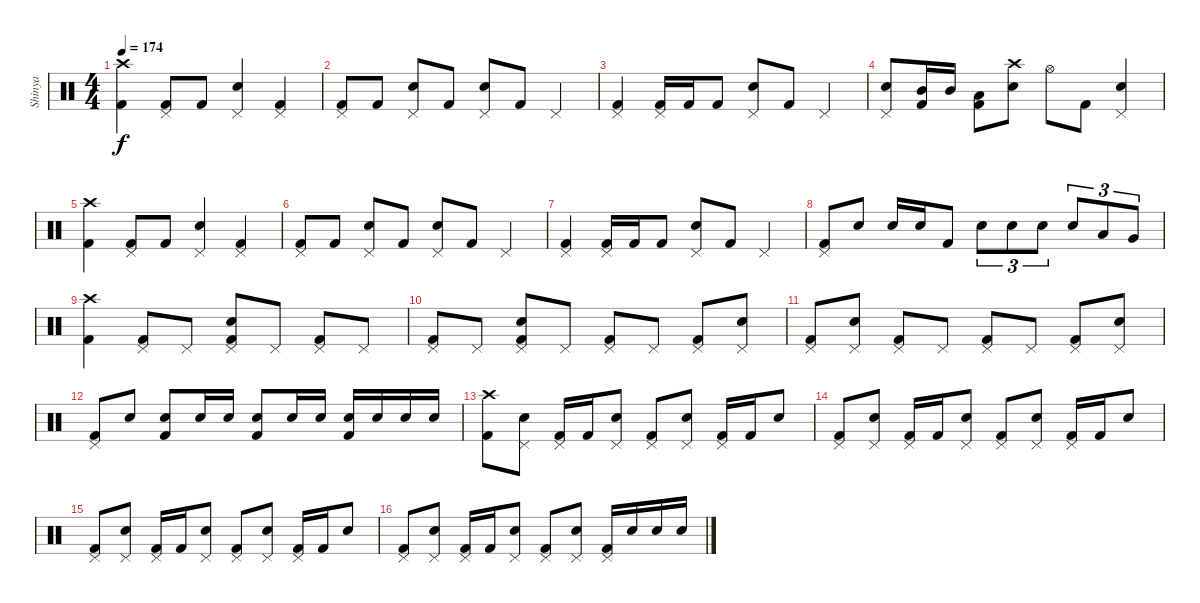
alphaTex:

\track ("Shinya" "Shinya") {instrument percussion}
\staff {score}
\articulation defaults
\ts (4 4)
\tempo 174
\clef neutral
\ks c
("Crash high (hit)" "Kick (hit) 2").4{dy f} ("Pedal Hi-Hat (hit)" "Kick (hit) 2").8 "Kick (hit) 2".8 ("Pedal Hi-Hat (hit)" "Electric Snare (hit)").4 ("Pedal Hi-Hat (hit)" "Kick (hit) 2").4 |
("Pedal Hi-Hat (hit)" "Kick (hit) 2").8 "Kick (hit) 2".8 ("Pedal Hi-Hat (hit)" "Electric Snare (hit)").8 "Kick (hit) 2".8 ("Pedal Hi-Hat (hit)" "Electric Snare (hit)").8 "Kick (hit) 2".8 "Pedal Hi-Hat (hit)".4 |
("Pedal Hi-Hat (hit)" "Kick (hit) 2").4 ("Pedal Hi-Hat (hit)" "Kick (hit) 2").16 "Kick (hit) 2".16 "Kick (hit) 2".8 ("Pedal Hi-Hat (hit)" "Electric Snare (hit)").8 "Kick (hit) 2".8 "Pedal Hi-Hat (hit)".4 |
("Pedal Hi-Hat (hit)" "Electric Snare (hit)").8 ("Mid Tom (hit)" "Kick (hit) 2").16 "Mid Tom (hit)".16 ("Low Tom (hit)" "Kick (hit) 2").8 ("Crash high (hit)" "Electric Snare (hit)").8 "Hi-Hat (open)".8 "Kick (hit) 2".8 ("Pedal Hi-Hat (hit)" "Electric Snare (hit)").4 |
("Crash high (hit)" "Kick (hit) 2").4 ("Pedal Hi-Hat (hit)" "Kick (hit) 2").8 "Kick (hit) 2".8 ("Pedal Hi-Hat (hit)" "Electric Snare (hit)").4 ("Pedal Hi-Hat (hit)" "Kick (hit) 2").4 |
("Pedal Hi-Hat (hit)" "Kick (hit) 2").8 "Kick (hit) 2".8 ("Pedal Hi-Hat (hit)" "Electric Snare (hit)").8 "Kick (hit) 2".8 ("Pedal Hi-Hat (hit)" "Electric Snare (hit)").8 "Kick (hit) 2".8 "Pedal Hi-Hat (hit)".4 |
("Pedal Hi-Hat (hit)" "Kick (hit) 2").4 ("Pedal Hi-Hat (hit)" "Kick (hit) 2").16 "Kick (hit) 2".16 "Kick (hit) 2".8 ("Pedal Hi-Hat (hit)" "Electric Snare (hit)").8 "Kick (hit) 2".8 "Pedal Hi-Hat (hit)".4 |
("Pedal Hi-Hat (hit)" "Kick (hit) 2").8 "Electric Snare (hit)".8 "Electric Snare (hit)".16 "Electric Snare (hit)".16 "Kick (hit) 2".8 "Electric Snare (hit)".8{tu (3 2)} "Electric Snare (hit)".8{tu (3 2)} "Electric Snare (hit)".8{tu (3 2)} "Electric Snare (hit)".8{tu (3 2)} "Low Tom (hit)".8{tu (3 2)} "Very Low Tom (hit)".8{tu (3 2)} |
("Crash high (hit)" "Kick (hit) 2").4 ("Pedal Hi-Hat (hit)" "Kick (hit) 2").8 "Pedal Hi-Hat (hit)".8 ("Pedal Hi-Hat (hit)" "Electric Snare (hit)" "Kick (hit) 2").8 "Pedal Hi-Hat (hit)".8 ("Pedal Hi-Hat (hit)" "Kick (hit) 2").8 "Pedal Hi-Hat (hit)".8 |
("Pedal Hi-Hat (hit)" "Kick (hit) 2").8 "Pedal Hi-Hat (hit)".8 ("Pedal Hi-Hat (hit)" "Electric Snare (hit)" "Kick (hit) 2").8 "Pedal Hi-Hat (hit)".8 ("Pedal Hi-Hat (hit)" "Kick (hit) 2").8 "Pedal Hi-Hat (hit)".8 ("Pedal Hi-Hat (hit)" "Kick (hit) 2").8 ("Pedal Hi-Hat (hit)" "Electric Snare (hit)").8 |
("Pedal Hi-Hat (hit)" "Kick (hit) 2").8 ("Pedal Hi-Hat (hit)" "Electric Snare (hit)").8 ("Pedal Hi-Hat (hit)" "Kick (hit) 2").8 "Pedal Hi-Hat (hit)".8 ("Pedal Hi-Hat (hit)" "Kick (hit) 2").8 "Pedal Hi-Hat (hit)".8 ("Pedal Hi-Hat (hit)" "Kick (hit) 2").8 ("Pedal Hi-Hat (hit)" "Electric Snare (hit)").8 |
("Pedal Hi-Hat (hit)" "Kick (hit) 2").8 "Electric Snare (hit)".8 ("Electric Snare (hit)" "Kick (hit) 2").8 "Electric Snare (hit)".16 "Electric Snare (hit)".16 ("Electric Snare (hit)" "Kick (hit) 2").8 "Electric Snare (hit)".16 "Electric Snare (hit)".16 ("Electric Snare (hit)" "Kick (hit) 2").16 "Electric Snare (hit)".16 "Electric Snare (hit)".16 "Electric Snare (hit)".16 |
("Crash high (hit)" "Kick (hit) 2").8 ("Pedal Hi-Hat (hit)" "Electric Snare (hit)").8 ("Pedal Hi-Hat (hit)" "Kick (hit) 2").16 "Kick (hit) 2".16 ("Pedal Hi-Hat (hit)" "Electric Snare (hit)").8 ("Pedal Hi-Hat (hit)" "Kick (hit) 2").8 ("Pedal Hi-Hat (hit)" "Electric Snare (hit)").8 ("Pedal Hi-Hat (hit)" "Kick (hit) 2").16 "Kick (hit) 2".16 "Electric Snare (hit)".8 |
("Pedal Hi-Hat (hit)" "Kick (hit) 2").8 ("Pedal Hi-Hat (hit)" "Electric Snare (hit)").8 ("Pedal Hi-Hat (hit)" "Kick (hit) 2").16 "Kick (hit) 2".16 ("Pedal Hi-Hat (hit)" "Electric Snare (hit)").8 ("Pedal Hi-Hat (hit)" "Kick (hit) 2").8 ("Pedal Hi-Hat (hit)" "Electric Snare (hit)").8 ("Pedal Hi-Hat (hit)" "Kick (hit) 2").16 "Kick (hit) 2".16 "Electric Snare (hit)".8 |
("Pedal Hi-Hat (hit)" "Kick (hit) 2").8 ("Pedal Hi-Hat (hit)" "Electric Snare (hit)").8 ("Pedal Hi-Hat (hit)" "Kick (hit) 2").16 "Kick (hit) 2".16 ("Pedal Hi-Hat (hit)" "Electric Snare (hit)").8 ("Pedal Hi-Hat (hit)" "Kick (hit) 2").8 ("Pedal Hi-Hat (hit)" "Electric Snare (hit)").8 ("Pedal Hi-Hat (hit)" "Kick (hit) 2").16 "Kick (hit) 2".16 "Electric Snare (hit)".8 |
("Pedal Hi-Hat (hit)" "Kick (hit) 2").8 ("Pedal Hi-Hat (hit)" "Electric Snare (hit)").8 ("Pedal Hi-Hat (hit)" "Kick (hit) 2").16 "Kick (hit) 2".16 ("Pedal Hi-Hat (hit)" "Electric Snare (hit)").8 ("Pedal Hi-Hat (hit)" "Kick (hit) 2").8 ("Pedal Hi-Hat (hit)" "Electric Snare (hit)").8 ("Pedal Hi-Hat (hit)" "Kick (hit) 2").16 "Electric Snare (hit)".16 "Electric Snare (hit)".16 "Electric Snare (hit)".16
